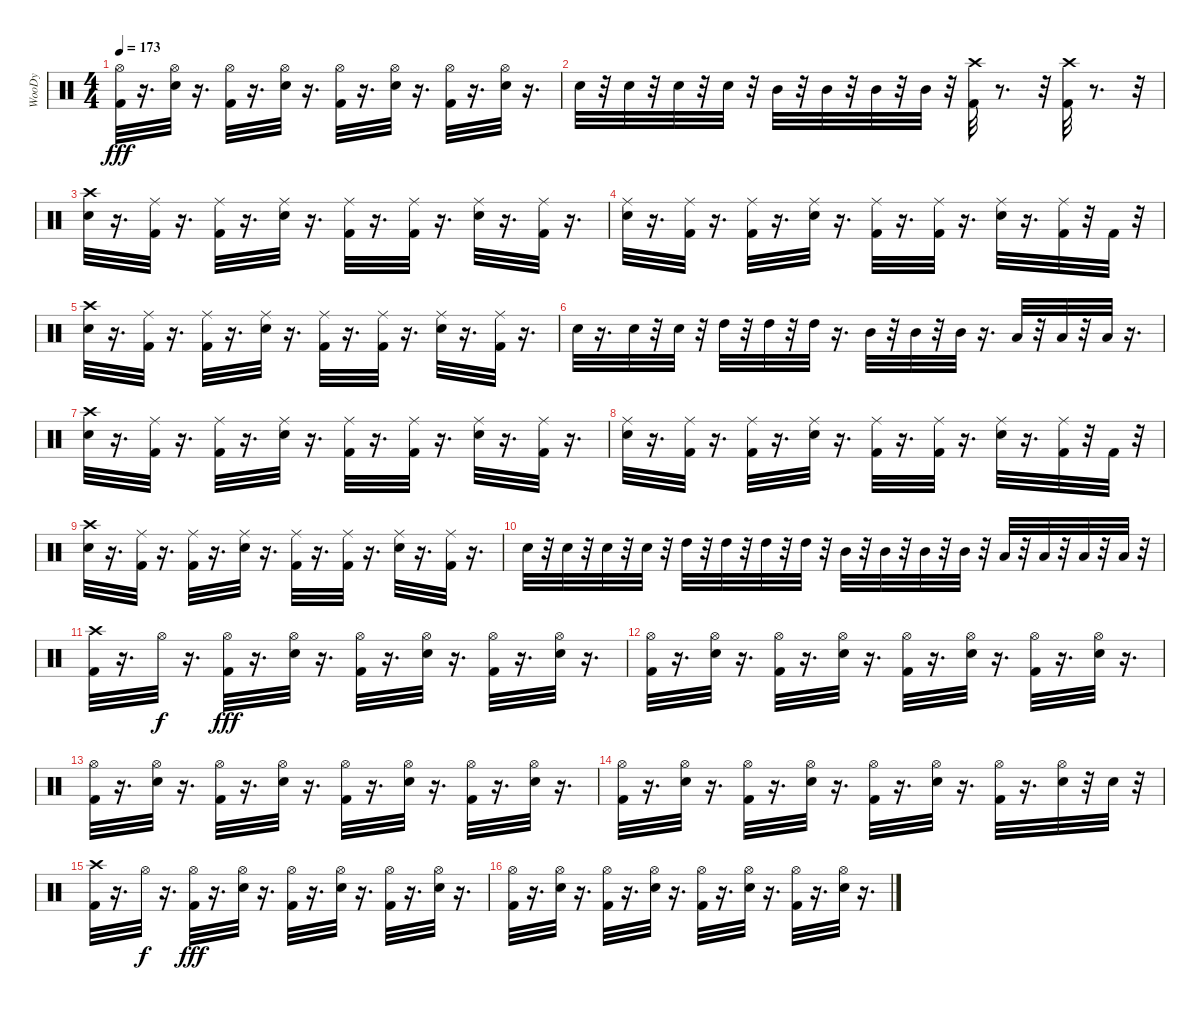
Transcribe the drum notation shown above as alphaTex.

\track ("WooDy" "WooDy") {instrument percussion}
\staff {score}
\articulation defaults
\ts (4 4)
\tempo 173
\clef neutral
\ks c
("Kick (hit) 2" "Hi-Hat (open)").32{dy fff} r.16{d} ("Electric Snare (hit)" "Hi-Hat (open)").32 r.16{d} ("Kick (hit) 2" "Hi-Hat (open)").32 r.16{d} ("Electric Snare (hit)" "Hi-Hat (open)").32 r.16{d} ("Kick (hit) 2" "Hi-Hat (open)").32 r.16{d} ("Electric Snare (hit)" "Hi-Hat (open)").32 r.16{d} ("Kick (hit) 2" "Hi-Hat (open)").32 r.16{d} ("Electric Snare (hit)" "Hi-Hat (open)").32 r.16{d} |
"Electric Snare (hit)".32 r.32 "Electric Snare (hit)".32 r.32 "Electric Snare (hit)".32 r.32 "Electric Snare (hit)".32 r.32 "Mid Tom (hit)".32 r.32 "Mid Tom (hit)".32 r.32 "Mid Tom (hit)".32 r.32 "Mid Tom (hit)".32 r.32 ("Kick (hit) 2" "Crash high (hit)").32 r.8{d} r.32 ("Kick (hit) 2" "Crash high (hit)").32 r.8{d} r.32 |
("Electric Snare (hit)" "Crash high (hit)").32 r.16{d} ("Kick (hit) 2" "Ride (middle)").32 r.16{d} ("Kick (hit) 2" "Ride (middle)").32 r.16{d} ("Electric Snare (hit)" "Ride (middle)").32 r.16{d} ("Kick (hit) 2" "Ride (middle)").32 r.16{d} ("Kick (hit) 2" "Ride (middle)").32 r.16{d} ("Electric Snare (hit)" "Ride (middle)").32 r.16{d} ("Kick (hit) 2" "Ride (middle)").32 r.16{d} |
("Electric Snare (hit)" "Ride (middle)").32 r.16{d} ("Kick (hit) 2" "Ride (middle)").32 r.16{d} ("Kick (hit) 2" "Ride (middle)").32 r.16{d} ("Electric Snare (hit)" "Ride (middle)").32 r.16{d} ("Kick (hit) 2" "Ride (middle)").32 r.16{d} ("Kick (hit) 2" "Ride (middle)").32 r.16{d} ("Electric Snare (hit)" "Ride (middle)").32 r.16{d} ("Kick (hit) 2" "Ride (middle)").32 r.32 "Kick (hit) 2".32 r.32 |
("Electric Snare (hit)" "Crash high (hit)").32 r.16{d} ("Kick (hit) 2" "Ride (middle)").32 r.16{d} ("Kick (hit) 2" "Ride (middle)").32 r.16{d} ("Electric Snare (hit)" "Ride (middle)").32 r.16{d} ("Kick (hit) 2" "Ride (middle)").32 r.16{d} ("Kick (hit) 2" "Ride (middle)").32 r.16{d} ("Electric Snare (hit)" "Ride (middle)").32 r.16{d} ("Kick (hit) 2" "Ride (middle)").32 r.16{d} |
"Electric Snare (hit)".32 r.16{d} "Electric Snare (hit)".32 r.32 "Electric Snare (hit)".32 r.32 "High Tom (hit)".32 r.32 "High Tom (hit)".32 r.32 "High Tom (hit)".32 r.16{d} "Mid Tom (hit)".32 r.32 "Mid Tom (hit)".32 r.32 "Mid Tom (hit)".32 r.16{d} "Low Tom (hit)".32 r.32 "Low Tom (hit)".32 r.32 "Low Tom (hit)".32 r.16{d} |
("Electric Snare (hit)" "Crash high (hit)").32 r.16{d} ("Kick (hit) 2" "Ride (middle)").32 r.16{d} ("Kick (hit) 2" "Ride (middle)").32 r.16{d} ("Electric Snare (hit)" "Ride (middle)").32 r.16{d} ("Kick (hit) 2" "Ride (middle)").32 r.16{d} ("Kick (hit) 2" "Ride (middle)").32 r.16{d} ("Electric Snare (hit)" "Ride (middle)").32 r.16{d} ("Kick (hit) 2" "Ride (middle)").32 r.16{d} |
("Electric Snare (hit)" "Ride (middle)").32 r.16{d} ("Kick (hit) 2" "Ride (middle)").32 r.16{d} ("Kick (hit) 2" "Ride (middle)").32 r.16{d} ("Electric Snare (hit)" "Ride (middle)").32 r.16{d} ("Kick (hit) 2" "Ride (middle)").32 r.16{d} ("Kick (hit) 2" "Ride (middle)").32 r.16{d} ("Electric Snare (hit)" "Ride (middle)").32 r.16{d} ("Kick (hit) 2" "Ride (middle)").32 r.32 "Kick (hit) 2".32 r.32 |
("Electric Snare (hit)" "Crash high (hit)").32 r.16{d} ("Kick (hit) 2" "Ride (middle)").32 r.16{d} ("Kick (hit) 2" "Ride (middle)").32 r.16{d} ("Electric Snare (hit)" "Ride (middle)").32 r.16{d} ("Kick (hit) 2" "Ride (middle)").32 r.16{d} ("Kick (hit) 2" "Ride (middle)").32 r.16{d} ("Electric Snare (hit)" "Ride (middle)").32 r.16{d} ("Kick (hit) 2" "Ride (middle)").32 r.16{d} |
"Electric Snare (hit)".32 r.32 "Electric Snare (hit)".32 r.32 "Electric Snare (hit)".32 r.32 "Electric Snare (hit)".32 r.32 "High Tom (hit)".32 r.32 "High Tom (hit)".32 r.32 "High Tom (hit)".32 r.32 "High Tom (hit)".32 r.32 "Mid Tom (hit)".32 r.32 "Mid Tom (hit)".32 r.32 "Mid Tom (hit)".32 r.32 "Mid Tom (hit)".32 r.32 "Low Tom (hit)".32 r.32 "Low Tom (hit)".32 r.32 "Low Tom (hit)".32 r.32 "Low Tom (hit)".32 r.32 |
("Kick (hit) 2" "Crash high (hit)").32 r.16{d} "Hi-Hat (open)".32{dy f} r.16{d} ("Kick (hit) 2" "Hi-Hat (open)").32{dy fff} r.16{d} ("Electric Snare (hit)" "Hi-Hat (open)").32 r.16{d} ("Kick (hit) 2" "Hi-Hat (open)").32 r.16{d} ("Electric Snare (hit)" "Hi-Hat (open)").32 r.16{d} ("Kick (hit) 2" "Hi-Hat (open)").32 r.16{d} ("Electric Snare (hit)" "Hi-Hat (open)").32 r.16{d} |
("Kick (hit) 2" "Hi-Hat (open)").32 r.16{d} ("Electric Snare (hit)" "Hi-Hat (open)").32 r.16{d} ("Kick (hit) 2" "Hi-Hat (open)").32 r.16{d} ("Electric Snare (hit)" "Hi-Hat (open)").32 r.16{d} ("Kick (hit) 2" "Hi-Hat (open)").32 r.16{d} ("Electric Snare (hit)" "Hi-Hat (open)").32 r.16{d} ("Kick (hit) 2" "Hi-Hat (open)").32 r.16{d} ("Electric Snare (hit)" "Hi-Hat (open)").32 r.16{d} |
("Kick (hit) 2" "Hi-Hat (open)").32 r.16{d} ("Electric Snare (hit)" "Hi-Hat (open)").32 r.16{d} ("Kick (hit) 2" "Hi-Hat (open)").32 r.16{d} ("Electric Snare (hit)" "Hi-Hat (open)").32 r.16{d} ("Kick (hit) 2" "Hi-Hat (open)").32 r.16{d} ("Electric Snare (hit)" "Hi-Hat (open)").32 r.16{d} ("Kick (hit) 2" "Hi-Hat (open)").32 r.16{d} ("Electric Snare (hit)" "Hi-Hat (open)").32 r.16{d} |
("Kick (hit) 2" "Hi-Hat (open)").32 r.16{d} ("Electric Snare (hit)" "Hi-Hat (open)").32 r.16{d} ("Kick (hit) 2" "Hi-Hat (open)").32 r.16{d} ("Electric Snare (hit)" "Hi-Hat (open)").32 r.16{d} ("Kick (hit) 2" "Hi-Hat (open)").32 r.16{d} ("Electric Snare (hit)" "Hi-Hat (open)").32 r.16{d} ("Kick (hit) 2" "Hi-Hat (open)").32 r.16{d} ("Electric Snare (hit)" "Hi-Hat (open)").32 r.32 "Electric Snare (hit)".32 r.32 |
("Kick (hit) 2" "Crash high (hit)").32 r.16{d} "Hi-Hat (open)".32{dy f} r.16{d} ("Kick (hit) 2" "Hi-Hat (open)").32{dy fff} r.16{d} ("Electric Snare (hit)" "Hi-Hat (open)").32 r.16{d} ("Kick (hit) 2" "Hi-Hat (open)").32 r.16{d} ("Electric Snare (hit)" "Hi-Hat (open)").32 r.16{d} ("Kick (hit) 2" "Hi-Hat (open)").32 r.16{d} ("Electric Snare (hit)" "Hi-Hat (open)").32 r.16{d} |
("Kick (hit) 2" "Hi-Hat (open)").32 r.16{d} ("Electric Snare (hit)" "Hi-Hat (open)").32 r.16{d} ("Kick (hit) 2" "Hi-Hat (open)").32 r.16{d} ("Electric Snare (hit)" "Hi-Hat (open)").32 r.16{d} ("Kick (hit) 2" "Hi-Hat (open)").32 r.16{d} ("Electric Snare (hit)" "Hi-Hat (open)").32 r.16{d} ("Kick (hit) 2" "Hi-Hat (open)").32 r.16{d} ("Electric Snare (hit)" "Hi-Hat (open)").32 r.16{d}
